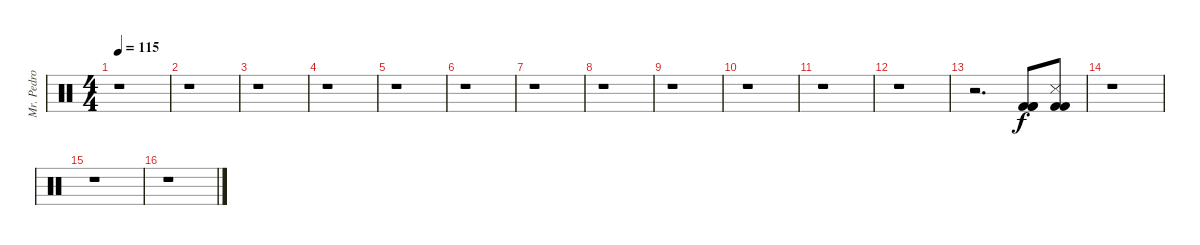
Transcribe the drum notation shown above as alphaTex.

\track ("Mr. Pedro Andreu" "Mr. Pedro ") {instrument percussion}
\staff {score}
\articulation defaults
\ts (4 4)
\tempo 115
\clef neutral
\ks c
r.1{dy f} |
r.1 |
r.1 |
r.1 |
r.1 |
r.1 |
r.1 |
r.1 |
r.1 |
r.1 |
r.1 |
r.1 |
r.2{d} ("Kick (hit) 2" "Kick (hit) 2" "Kick (hit) 2").8 ("Kick (hit) 2" "Snare (side stick) 3" "Kick (hit) 2").8 |
r.1 |
r.1 |
r.1
